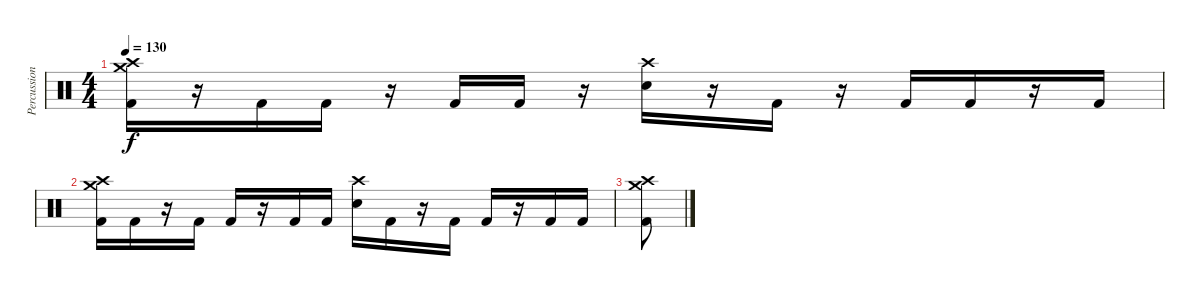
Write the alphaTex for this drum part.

\track ("Percussion" "Percussion") {instrument percussion}
\staff {score}
\articulation defaults
\ts (4 4)
\tempo 130
\clef neutral
\ks c
("Crash high (hit)" "Crash medium (hit)" "Kick (hit) 2").16{dy f} r.16 "Kick (hit) 2".16 "Kick (hit) 2".16 r.16 "Kick (hit) 2".16 "Kick (hit) 2".16 r.16 ("Crash high (hit)" "Electric Snare (hit)").16 r.16 "Kick (hit) 2".16 r.16 "Kick (hit) 2".16 "Kick (hit) 2".16 r.16 "Kick (hit) 2".16 |
("Crash high (hit)" "Crash medium (hit)" "Kick (hit) 2").16 "Kick (hit) 2".16 r.16 "Kick (hit) 2".16 "Kick (hit) 2".16 r.16 "Kick (hit) 2".16 "Kick (hit) 2".16 ("Crash high (hit)" "Electric Snare (hit)").16 "Kick (hit) 2".16 r.16 "Kick (hit) 2".16 "Kick (hit) 2".16 r.16 "Kick (hit) 2".16 "Kick (hit) 2".16 |
("Kick (hit) 2" "Crash high (hit)" "Crash medium (hit)").8
